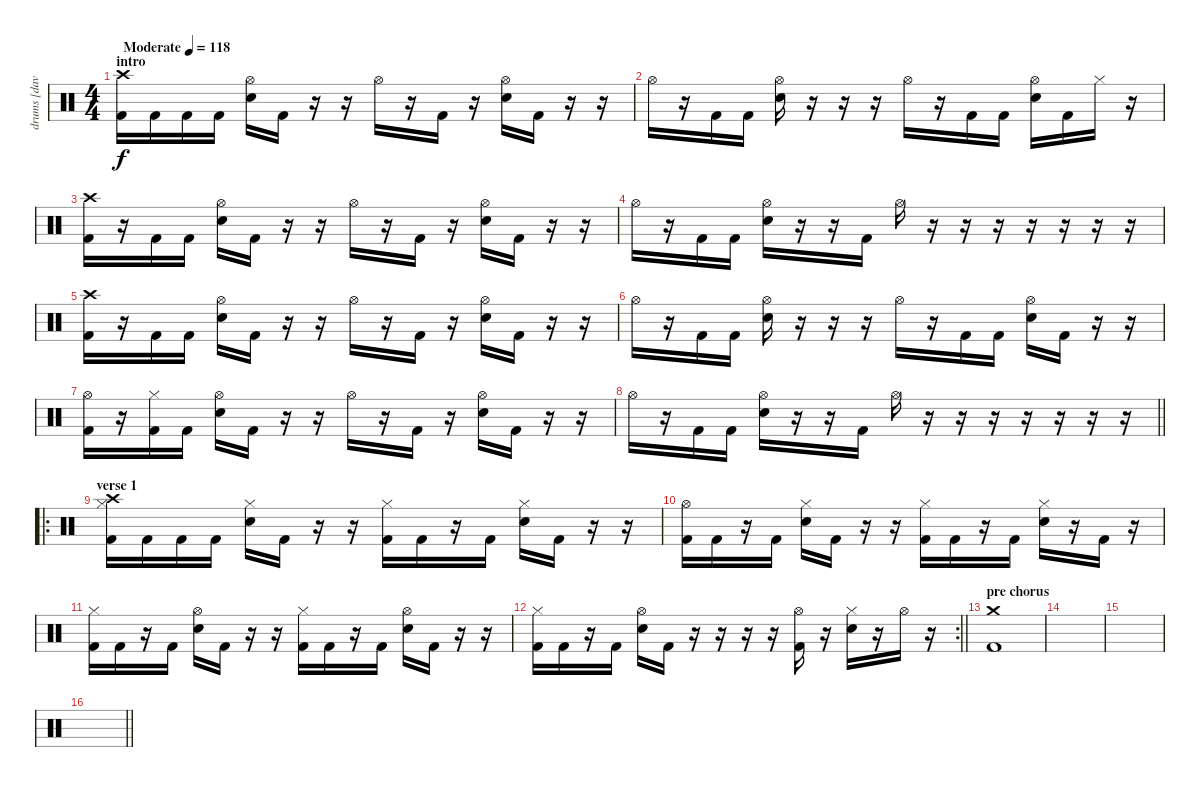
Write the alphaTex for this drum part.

\track ("drums [david]" "drums [dav") {instrument percussion}
\staff {score}
\articulation defaults
\ts (4 4)
\section ("" "intro")
\tempo (118 "Moderate")
\clef neutral
\ks c
("Crash high (hit)" "Kick (hit) 2").16{dy f} "Kick (hit) 2".16 "Kick (hit) 2".16 "Kick (hit) 2".16 ("Hi-Hat (open)" "Electric Snare (hit)").16 "Kick (hit) 2".16 r.16 r.16 "Hi-Hat (open)".16 r.16 "Kick (hit) 2".16 r.16 ("Hi-Hat (open)" "Electric Snare (hit)").16 "Kick (hit) 2".16 r.16 r.16 |
"Hi-Hat (open)".16 r.16 "Kick (hit) 2".16 "Kick (hit) 2".16 ("Hi-Hat (open)" "Electric Snare (hit)").16 r.16 r.16 r.16 "Hi-Hat (open)".16 r.16 "Kick (hit) 2".16 "Kick (hit) 2".16 ("Hi-Hat (open)" "Electric Snare (hit)").16 "Kick (hit) 2".16 "Hi-Hat (closed)".16 r.16 |
("Crash high (hit)" "Kick (hit) 2").16 r.16 "Kick (hit) 2".16 "Kick (hit) 2".16 ("Hi-Hat (open)" "Electric Snare (hit)").16 "Kick (hit) 2".16 r.16 r.16 "Hi-Hat (open)".16 r.16 "Kick (hit) 2".16 r.16 ("Hi-Hat (open)" "Electric Snare (hit)").16 "Kick (hit) 2".16 r.16 r.16 |
"Hi-Hat (open)".16 r.16 "Kick (hit) 2".16 "Kick (hit) 2".16 ("Hi-Hat (open)" "Electric Snare (hit)").16 r.16 r.16 "Kick (hit) 2".16 "Hi-Hat (open)".16 r.16 r.16 r.16 r.16 r.16 r.16 r.16 |
("Crash high (hit)" "Kick (hit) 2").16 r.16 "Kick (hit) 2".16 "Kick (hit) 2".16 ("Hi-Hat (open)" "Electric Snare (hit)").16 "Kick (hit) 2".16 r.16 r.16 "Hi-Hat (open)".16 r.16 "Kick (hit) 2".16 r.16 ("Hi-Hat (open)" "Electric Snare (hit)").16 "Kick (hit) 2".16 r.16 r.16 |
"Hi-Hat (open)".16 r.16 "Kick (hit) 2".16 "Kick (hit) 2".16 ("Hi-Hat (open)" "Electric Snare (hit)").16 r.16 r.16 r.16 "Hi-Hat (open)".16 r.16 "Kick (hit) 2".16 "Kick (hit) 2".16 ("Hi-Hat (open)" "Electric Snare (hit)").16 "Kick (hit) 2".16 r.16 r.16 |
("Hi-Hat (open)" "Kick (hit) 2").16 r.16 ("Hi-Hat (closed)" "Kick (hit) 2").16 "Kick (hit) 2".16 ("Hi-Hat (open)" "Electric Snare (hit)").16 "Kick (hit) 2".16 r.16 r.16 "Hi-Hat (open)".16 r.16 "Kick (hit) 2".16 r.16 ("Hi-Hat (open)" "Electric Snare (hit)").16 "Kick (hit) 2".16 r.16 r.16 |
\barLineRight lightlight "Hi-Hat (open)".16
r.16 "Kick (hit) 2".16 "Kick (hit) 2".16 ("Hi-Hat (open)" "Electric Snare (hit)").16 r.16 r.16 "Kick (hit) 2".16 "Hi-Hat (open)".16 r.16 r.16 r.16 r.16 r.16 r.16 r.16 |
\ro
\section ("" "verse 1")
("Crash high (hit)" "Hi-Hat (closed)" "Kick (hit) 2").16 "Kick (hit) 2".16 "Kick (hit) 2".16 "Kick (hit) 2".16 ("Hi-Hat (closed)" "Electric Snare (hit)").16 "Kick (hit) 2".16 r.16 r.16 ("Hi-Hat (closed)" "Kick (hit) 2").16 "Kick (hit) 2".16 r.16 "Kick (hit) 2".16 ("Hi-Hat (closed)" "Electric Snare (hit)").16 "Kick (hit) 2".16 r.16 r.16 |
("Hi-Hat (open)" "Kick (hit) 2").16 "Kick (hit) 2".16 r.16 "Kick (hit) 2".16 ("Hi-Hat (closed)" "Electric Snare (hit)").16 "Kick (hit) 2".16 r.16 r.16 ("Hi-Hat (closed)" "Kick (hit) 2").16 "Kick (hit) 2".16 r.16 "Kick (hit) 2".16 ("Hi-Hat (closed)" "Electric Snare (hit)").16 r.16 "Kick (hit) 2".16 r.16 |
("Hi-Hat (closed)" "Kick (hit) 2").16 "Kick (hit) 2".16 r.16 "Kick (hit) 2".16 ("Hi-Hat (open)" "Electric Snare (hit)").16 "Kick (hit) 2".16 r.16 r.16 ("Hi-Hat (closed)" "Kick (hit) 2").16 "Kick (hit) 2".16 r.16 "Kick (hit) 2".16 ("Hi-Hat (open)" "Electric Snare (hit)").16 "Kick (hit) 2".16 r.16 r.16 |
\rc 2
\barLineRight lightlight
("Hi-Hat (closed)" "Kick (hit) 2").16 "Kick (hit) 2".16 r.16 "Kick (hit) 2".16 ("Hi-Hat (open)" "Electric Snare (hit)").16 "Kick (hit) 2".16 r.16 r.16 r.16 r.16 ("Hi-Hat (open)" "Kick (hit) 2").16 r.16 ("Hi-Hat (closed)" "Electric Snare (hit)").16 r.16 "Hi-Hat (open)".16 r.16 |
\section ("" "pre chorus")
("Crash medium (hit)" "Kick (hit) 2").1 |
|
|
\barLineRight lightlight
